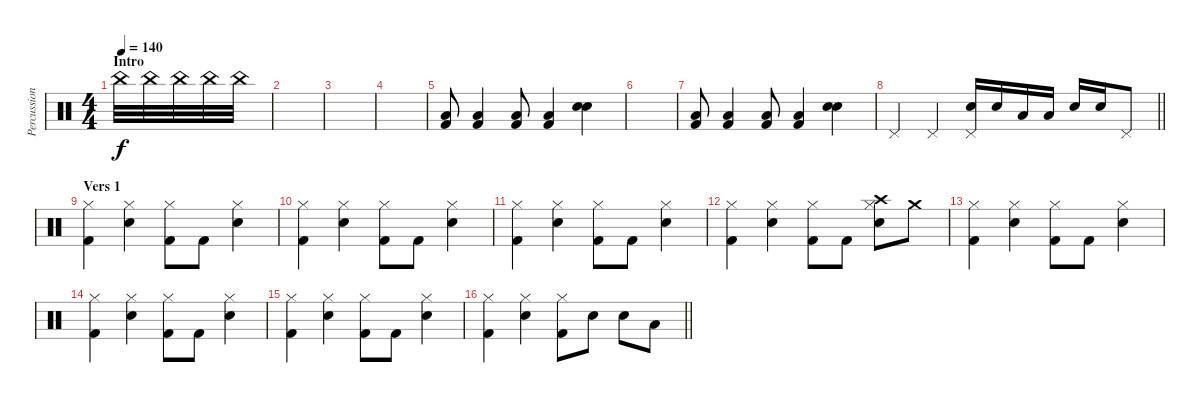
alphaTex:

\track ("Percussion" "Percussion") {instrument percussion}
\staff {score}
\articulation defaults
\ts (4 4)
\section ("" "Intro")
\tempo 140
\clef neutral
\ks c "China (hit)".32{dy f} "China (hit)".32 "China (hit)".32 "China (hit)".32 "China (hit)".32
|
|
|
|
("Low Tom (hit)" "Kick (hit) 2").8 ("Low Tom (hit)" "Kick (hit) 2").4 ("Low Tom (hit)" "Kick (hit) 2").8 ("Low Tom (hit)" "Kick (hit) 2").4 ("Snare (hit) 2" "Snare (hit) 2").4 |
|
("Low Tom (hit)" "Kick (hit) 2").8 ("Low Tom (hit)" "Kick (hit) 2").4 ("Low Tom (hit)" "Kick (hit) 2").8 ("Low Tom (hit)" "Kick (hit) 2").4 ("Snare (hit) 2" "Snare (hit) 2").4 |
\barLineRight lightlight "Pedal Hi-Hat (hit)".4 "Pedal Hi-Hat (hit)".4
("Snare (hit) 2" "Pedal Hi-Hat (hit)").16 "Snare (hit) 2".16 "Low Tom (hit)".16 "Low Tom (hit)".16 "Snare (hit) 2".16 "Snare (hit) 2".16 "Pedal Hi-Hat (hit)".8 |
\section ("" "Vers 1")
("Kick (hit) 2" "Hi-Hat (closed)").4 ("Snare (hit) 2" "Hi-Hat (closed)").4 ("Kick (hit) 2" "Hi-Hat (closed)").8 "Kick (hit) 2".8 ("Snare (hit) 2" "Hi-Hat (closed)").4 |
("Kick (hit) 2" "Hi-Hat (closed)").4 ("Snare (hit) 2" "Hi-Hat (closed)").4 ("Kick (hit) 2" "Hi-Hat (closed)").8 "Kick (hit) 2".8 ("Snare (hit) 2" "Hi-Hat (closed)").4 |
("Kick (hit) 2" "Hi-Hat (closed)").4 ("Snare (hit) 2" "Hi-Hat (closed)").4 ("Kick (hit) 2" "Hi-Hat (closed)").8 "Kick (hit) 2".8 ("Snare (hit) 2" "Hi-Hat (closed)").4 |
("Kick (hit) 2" "Hi-Hat (closed)").4 ("Snare (hit) 2" "Hi-Hat (closed)").4 ("Kick (hit) 2" "Hi-Hat (closed)").8 "Kick (hit) 2".8 ("Crash high (hit)" "Snare (hit) 2" "Hi-Hat (closed)").8 "Crash medium (hit)".8 |
("Kick (hit) 2" "Hi-Hat (closed)").4 ("Snare (hit) 2" "Hi-Hat (closed)").4 ("Kick (hit) 2" "Hi-Hat (closed)").8 "Kick (hit) 2".8 ("Snare (hit) 2" "Hi-Hat (closed)").4 |
("Kick (hit) 2" "Hi-Hat (closed)").4 ("Snare (hit) 2" "Hi-Hat (closed)").4 ("Kick (hit) 2" "Hi-Hat (closed)").8 "Kick (hit) 2".8 ("Snare (hit) 2" "Hi-Hat (closed)").4 |
("Kick (hit) 2" "Hi-Hat (closed)").4 ("Snare (hit) 2" "Hi-Hat (closed)").4 ("Kick (hit) 2" "Hi-Hat (closed)").8 "Kick (hit) 2".8 ("Snare (hit) 2" "Hi-Hat (closed)").4 |
\barLineRight lightlight
("Kick (hit) 2" "Hi-Hat (closed)").4 ("Snare (hit) 2" "Hi-Hat (closed)").4 ("Kick (hit) 2" "Hi-Hat (closed)").8 "Snare (hit) 2".8 "Snare (hit) 2".8 "Low Tom (hit)".8
